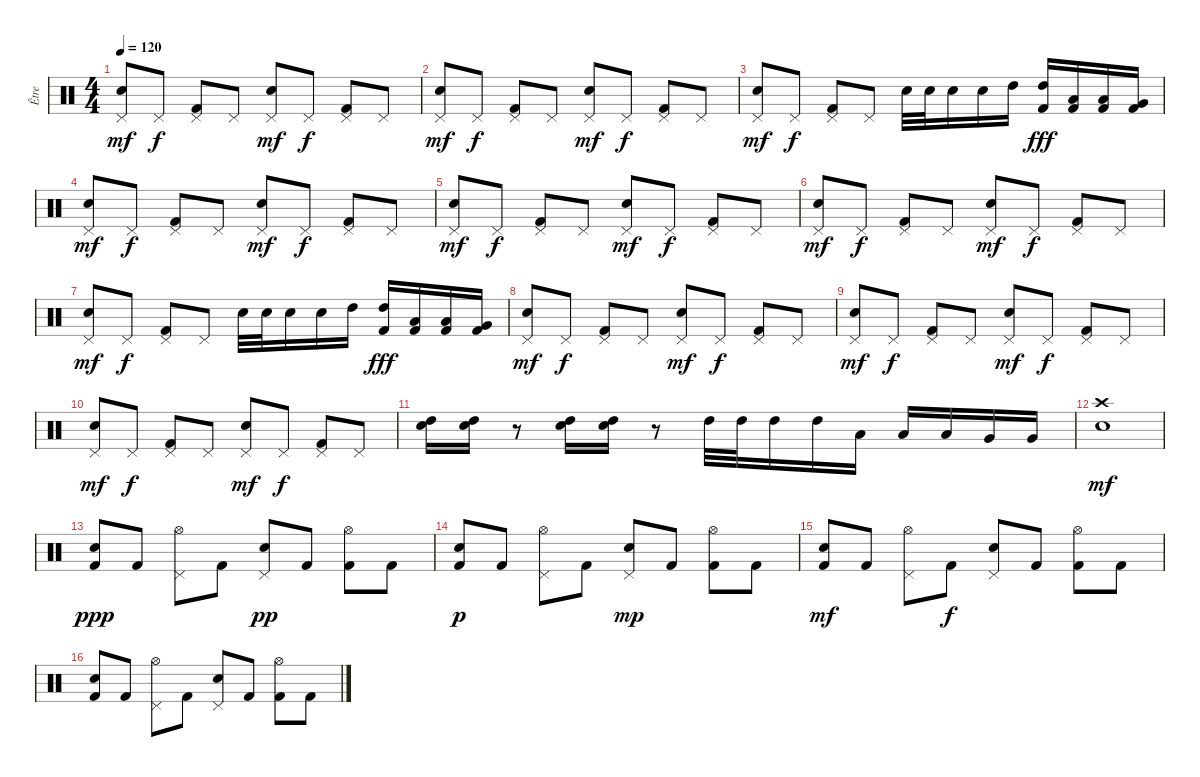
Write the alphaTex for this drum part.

\track ("Être" "Être") {instrument percussion}
\staff {score}
\articulation defaults
\ts (4 4)
\tempo 120
\clef neutral
\ks c
("Pedal Hi-Hat (hit)" "Electric Snare (hit)").8{dy mf} "Pedal Hi-Hat (hit)".8{dy f} ("Kick (hit) 2" "Pedal Hi-Hat (hit)").8 "Pedal Hi-Hat (hit)".8 ("Pedal Hi-Hat (hit)" "Electric Snare (hit)").8{dy mf} "Pedal Hi-Hat (hit)".8{dy f} ("Kick (hit) 2" "Pedal Hi-Hat (hit)").8 "Pedal Hi-Hat (hit)".8 |
("Pedal Hi-Hat (hit)" "Electric Snare (hit)").8{dy mf} "Pedal Hi-Hat (hit)".8{dy f} ("Kick (hit) 2" "Pedal Hi-Hat (hit)").8 "Pedal Hi-Hat (hit)".8 ("Pedal Hi-Hat (hit)" "Electric Snare (hit)").8{dy mf} "Pedal Hi-Hat (hit)".8{dy f} ("Kick (hit) 2" "Pedal Hi-Hat (hit)").8 "Pedal Hi-Hat (hit)".8 |
("Pedal Hi-Hat (hit)" "Electric Snare (hit)").8{dy mf} "Pedal Hi-Hat (hit)".8{dy f} ("Kick (hit) 2" "Pedal Hi-Hat (hit)").8 "Pedal Hi-Hat (hit)".8 "Electric Snare (hit)".32 "Electric Snare (hit)".32 "Electric Snare (hit)".16 "Electric Snare (hit)".16 "High Tom (hit)".16 ("High Tom (hit)" "Kick (hit) 2").16{dy fff} ("Low Tom (hit)" "Kick (hit) 2").16 ("Low Tom (hit)" "Kick (hit) 2").16 ("Very Low Tom (hit)" "Kick (hit) 2").16 |
("Pedal Hi-Hat (hit)" "Electric Snare (hit)").8{dy mf} "Pedal Hi-Hat (hit)".8{dy f} ("Kick (hit) 2" "Pedal Hi-Hat (hit)").8 "Pedal Hi-Hat (hit)".8 ("Pedal Hi-Hat (hit)" "Electric Snare (hit)").8{dy mf} "Pedal Hi-Hat (hit)".8{dy f} ("Kick (hit) 2" "Pedal Hi-Hat (hit)").8 "Pedal Hi-Hat (hit)".8 |
("Pedal Hi-Hat (hit)" "Electric Snare (hit)").8{dy mf} "Pedal Hi-Hat (hit)".8{dy f} ("Kick (hit) 2" "Pedal Hi-Hat (hit)").8 "Pedal Hi-Hat (hit)".8 ("Pedal Hi-Hat (hit)" "Electric Snare (hit)").8{dy mf} "Pedal Hi-Hat (hit)".8{dy f} ("Kick (hit) 2" "Pedal Hi-Hat (hit)").8 "Pedal Hi-Hat (hit)".8 |
("Pedal Hi-Hat (hit)" "Electric Snare (hit)").8{dy mf} "Pedal Hi-Hat (hit)".8{dy f} ("Kick (hit) 2" "Pedal Hi-Hat (hit)").8 "Pedal Hi-Hat (hit)".8 ("Pedal Hi-Hat (hit)" "Electric Snare (hit)").8{dy mf} "Pedal Hi-Hat (hit)".8{dy f} ("Kick (hit) 2" "Pedal Hi-Hat (hit)").8 "Pedal Hi-Hat (hit)".8 |
("Pedal Hi-Hat (hit)" "Electric Snare (hit)").8{dy mf} "Pedal Hi-Hat (hit)".8{dy f} ("Kick (hit) 2" "Pedal Hi-Hat (hit)").8 "Pedal Hi-Hat (hit)".8 "Electric Snare (hit)".32 "Electric Snare (hit)".32 "Electric Snare (hit)".16 "Electric Snare (hit)".16 "High Tom (hit)".16 ("High Tom (hit)" "Kick (hit) 2").16{dy fff} ("Low Tom (hit)" "Kick (hit) 2").16 ("Low Tom (hit)" "Kick (hit) 2").16 ("Very Low Tom (hit)" "Kick (hit) 2").16 |
("Pedal Hi-Hat (hit)" "Electric Snare (hit)").8{dy mf} "Pedal Hi-Hat (hit)".8{dy f} ("Kick (hit) 2" "Pedal Hi-Hat (hit)").8 "Pedal Hi-Hat (hit)".8 ("Pedal Hi-Hat (hit)" "Electric Snare (hit)").8{dy mf} "Pedal Hi-Hat (hit)".8{dy f} ("Kick (hit) 2" "Pedal Hi-Hat (hit)").8 "Pedal Hi-Hat (hit)".8 |
("Pedal Hi-Hat (hit)" "Electric Snare (hit)").8{dy mf} "Pedal Hi-Hat (hit)".8{dy f} ("Kick (hit) 2" "Pedal Hi-Hat (hit)").8 "Pedal Hi-Hat (hit)".8 ("Pedal Hi-Hat (hit)" "Electric Snare (hit)").8{dy mf} "Pedal Hi-Hat (hit)".8{dy f} ("Kick (hit) 2" "Pedal Hi-Hat (hit)").8 "Pedal Hi-Hat (hit)".8 |
("Pedal Hi-Hat (hit)" "Electric Snare (hit)").8{dy mf} "Pedal Hi-Hat (hit)".8{dy f} ("Kick (hit) 2" "Pedal Hi-Hat (hit)").8 "Pedal Hi-Hat (hit)".8 ("Pedal Hi-Hat (hit)" "Electric Snare (hit)").8{dy mf} "Pedal Hi-Hat (hit)".8{dy f} ("Kick (hit) 2" "Pedal Hi-Hat (hit)").8 "Pedal Hi-Hat (hit)".8 |
("High Tom (hit)" "Electric Snare (hit)").16 ("High Tom (hit)" "Electric Snare (hit)").16 r.8 ("High Tom (hit)" "Electric Snare (hit)").16 ("High Tom (hit)" "Electric Snare (hit)").16 r.8 "High Tom (hit)".32 "High Tom (hit)".32 "High Tom (hit)".16 "High Tom (hit)".16 "Low Tom (hit)".16 "Low Tom (hit)".16 "Low Tom (hit)".16 "Very Low Tom (hit)".16 "Very Low Tom (hit)".16 |
("Electric Snare (hit)" "Crash high (hit)").1{dy mf} |
("Kick (hit) 2" "Electric Snare (hit)").8{dy ppp} "Kick (hit) 2".8 ("Pedal Hi-Hat (hit)" "Hi-Hat (open)").8 "Kick (hit) 2".8 ("Pedal Hi-Hat (hit)" "Electric Snare (hit)").8{dy pp} "Kick (hit) 2".8 ("Kick (hit) 2" "Hi-Hat (open)").8 "Kick (hit) 2".8 |
("Kick (hit) 2" "Electric Snare (hit)").8{dy p} "Kick (hit) 2".8 ("Pedal Hi-Hat (hit)" "Hi-Hat (open)").8 "Kick (hit) 2".8 ("Pedal Hi-Hat (hit)" "Electric Snare (hit)").8{dy mp} "Kick (hit) 2".8 ("Kick (hit) 2" "Hi-Hat (open)").8 "Kick (hit) 2".8 |
("Kick (hit) 2" "Electric Snare (hit)").8{dy mf} "Kick (hit) 2".8 ("Pedal Hi-Hat (hit)" "Hi-Hat (open)").8 "Kick (hit) 2".8{dy f} ("Pedal Hi-Hat (hit)" "Electric Snare (hit)").8 "Kick (hit) 2".8 ("Kick (hit) 2" "Hi-Hat (open)").8 "Kick (hit) 2".8 |
("Kick (hit) 2" "Electric Snare (hit)").8 "Kick (hit) 2".8 ("Pedal Hi-Hat (hit)" "Hi-Hat (open)").8 "Kick (hit) 2".8 ("Pedal Hi-Hat (hit)" "Electric Snare (hit)").8 "Kick (hit) 2".8 ("Kick (hit) 2" "Hi-Hat (open)").8 "Kick (hit) 2".8
